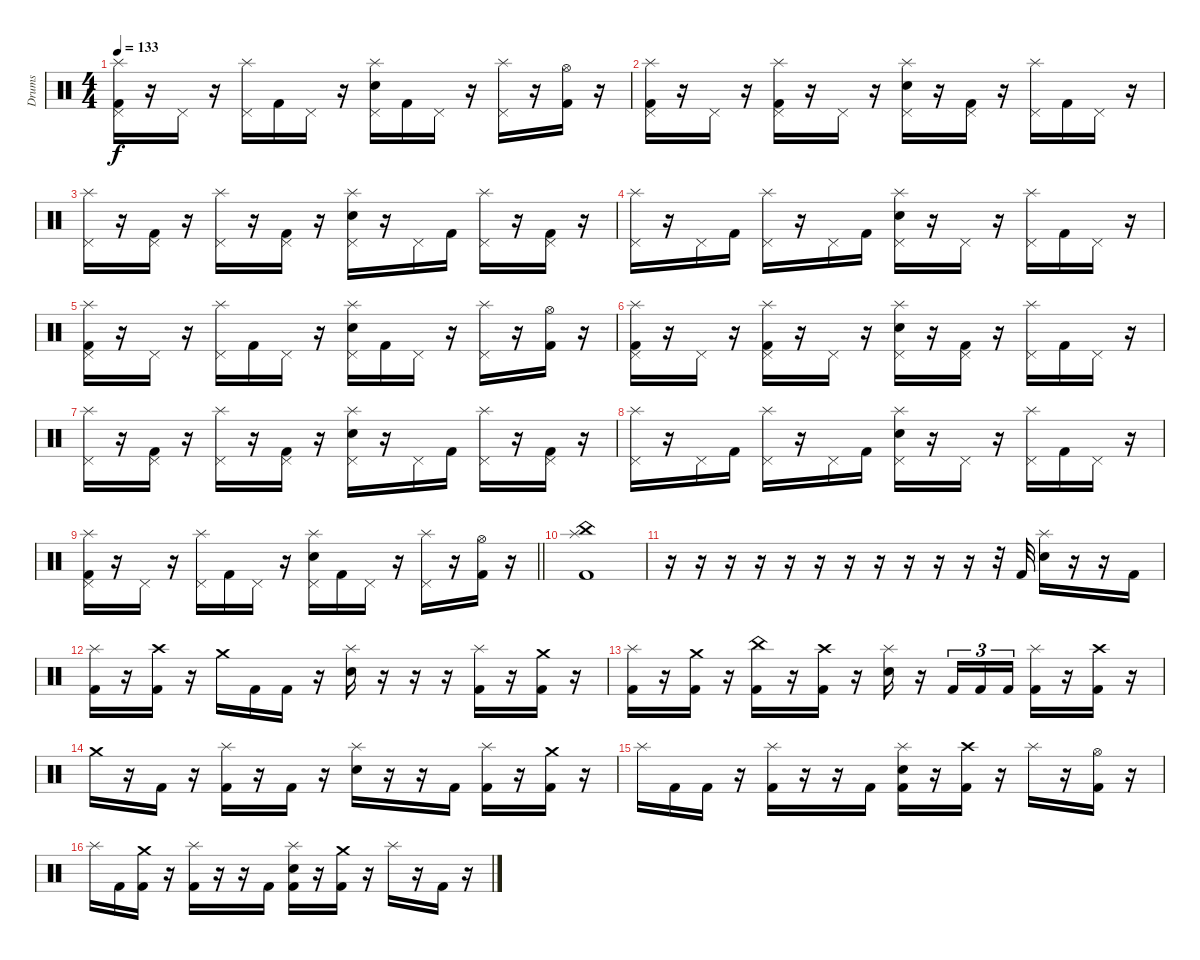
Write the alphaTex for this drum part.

\track ("Drums" "Drums") {instrument percussion}
\staff {score}
\articulation defaults
\ts (4 4)
\tempo 133
\clef neutral
\ks c
("Splash (hit)" "Pedal Hi-Hat (hit)" "Kick (hit) 2").16{dy f} r.16 "Pedal Hi-Hat (hit)".16 r.16 ("Splash (hit)" "Pedal Hi-Hat (hit)").16 "Kick (hit) 2".16 "Pedal Hi-Hat (hit)".16 r.16 ("Splash (hit)" "Pedal Hi-Hat (hit)" "Electric Snare (hit)").16 "Kick (hit) 2".16 "Pedal Hi-Hat (hit)".16 r.16 ("Splash (hit)" "Pedal Hi-Hat (hit)").16 r.16 ("Hi-Hat (open)" "Kick (hit) 2").16 r.16 |
("Splash (hit)" "Pedal Hi-Hat (hit)" "Kick (hit) 2").16 r.16 "Pedal Hi-Hat (hit)".16 r.16 ("Splash (hit)" "Pedal Hi-Hat (hit)" "Kick (hit) 2").16 r.16 "Pedal Hi-Hat (hit)".16 r.16 ("Splash (hit)" "Pedal Hi-Hat (hit)" "Electric Snare (hit)").16 r.16 ("Pedal Hi-Hat (hit)" "Kick (hit) 2").16 r.16 ("Splash (hit)" "Pedal Hi-Hat (hit)").16 "Kick (hit) 2".16 "Pedal Hi-Hat (hit)".16 r.16 |
("Splash (hit)" "Pedal Hi-Hat (hit)").16 r.16 ("Pedal Hi-Hat (hit)" "Kick (hit) 2").16 r.16 ("Splash (hit)" "Pedal Hi-Hat (hit)").16 r.16 ("Pedal Hi-Hat (hit)" "Kick (hit) 2").16 r.16 ("Splash (hit)" "Pedal Hi-Hat (hit)" "Electric Snare (hit)").16 r.16 "Pedal Hi-Hat (hit)".16 "Kick (hit) 2".16 ("Splash (hit)" "Pedal Hi-Hat (hit)").16 r.16 ("Pedal Hi-Hat (hit)" "Kick (hit) 2").16 r.16 |
("Splash (hit)" "Pedal Hi-Hat (hit)").16 r.16 "Pedal Hi-Hat (hit)".16 "Kick (hit) 2".16 ("Splash (hit)" "Pedal Hi-Hat (hit)").16 r.16 "Pedal Hi-Hat (hit)".16 "Kick (hit) 2".16 ("Splash (hit)" "Pedal Hi-Hat (hit)" "Electric Snare (hit)").16 r.16 "Pedal Hi-Hat (hit)".16 r.16 ("Splash (hit)" "Pedal Hi-Hat (hit)").16 "Kick (hit) 2".16 "Pedal Hi-Hat (hit)".16 r.16 |
("Splash (hit)" "Pedal Hi-Hat (hit)" "Kick (hit) 2").16 r.16 "Pedal Hi-Hat (hit)".16 r.16 ("Splash (hit)" "Pedal Hi-Hat (hit)").16 "Kick (hit) 2".16 "Pedal Hi-Hat (hit)".16 r.16 ("Splash (hit)" "Pedal Hi-Hat (hit)" "Electric Snare (hit)").16 "Kick (hit) 2".16 "Pedal Hi-Hat (hit)".16 r.16 ("Splash (hit)" "Pedal Hi-Hat (hit)").16 r.16 ("Hi-Hat (open)" "Kick (hit) 2").16 r.16 |
("Splash (hit)" "Pedal Hi-Hat (hit)" "Kick (hit) 2").16 r.16 "Pedal Hi-Hat (hit)".16 r.16 ("Splash (hit)" "Pedal Hi-Hat (hit)" "Kick (hit) 2").16 r.16 "Pedal Hi-Hat (hit)".16 r.16 ("Splash (hit)" "Pedal Hi-Hat (hit)" "Electric Snare (hit)").16 r.16 ("Pedal Hi-Hat (hit)" "Kick (hit) 2").16 r.16 ("Splash (hit)" "Pedal Hi-Hat (hit)").16 "Kick (hit) 2".16 "Pedal Hi-Hat (hit)".16 r.16 |
("Splash (hit)" "Pedal Hi-Hat (hit)").16 r.16 ("Pedal Hi-Hat (hit)" "Kick (hit) 2").16 r.16 ("Splash (hit)" "Pedal Hi-Hat (hit)").16 r.16 ("Pedal Hi-Hat (hit)" "Kick (hit) 2").16 r.16 ("Splash (hit)" "Pedal Hi-Hat (hit)" "Electric Snare (hit)").16 r.16 "Pedal Hi-Hat (hit)".16 "Kick (hit) 2".16 ("Splash (hit)" "Pedal Hi-Hat (hit)").16 r.16 ("Pedal Hi-Hat (hit)" "Kick (hit) 2").16 r.16 |
("Splash (hit)" "Pedal Hi-Hat (hit)").16 r.16 "Pedal Hi-Hat (hit)".16 "Kick (hit) 2".16 ("Splash (hit)" "Pedal Hi-Hat (hit)").16 r.16 "Pedal Hi-Hat (hit)".16 "Kick (hit) 2".16 ("Splash (hit)" "Pedal Hi-Hat (hit)" "Electric Snare (hit)").16 r.16 "Pedal Hi-Hat (hit)".16 r.16 ("Splash (hit)" "Pedal Hi-Hat (hit)").16 "Kick (hit) 2".16 "Pedal Hi-Hat (hit)".16 r.16 |
\barLineRight lightlight
("Splash (hit)" "Pedal Hi-Hat (hit)" "Kick (hit) 2").16 r.16 "Pedal Hi-Hat (hit)".16 r.16 ("Splash (hit)" "Pedal Hi-Hat (hit)").16 "Kick (hit) 2".16 "Pedal Hi-Hat (hit)".16 r.16 ("Splash (hit)" "Pedal Hi-Hat (hit)" "Electric Snare (hit)").16 "Kick (hit) 2".16 "Pedal Hi-Hat (hit)".16 r.16 ("Splash (hit)" "Pedal Hi-Hat (hit)").16 r.16 ("Hi-Hat (open)" "Kick (hit) 2").16 r.16 |
\section ("" "")
("Splash (hit)" "China (hit)" "Kick (hit) 2").1 |
r.16 r.16 r.16 r.16 r.16 r.16 r.16 r.16 r.16 r.16 r.16 r.32 "Kick (hit) 2".32 ("Splash (hit)" "Electric Snare (hit)").16 r.16 r.16 "Kick (hit) 2".16 |
("Splash (hit)" "Kick (hit) 2").16 r.16 ("Crash high (hit)" "Kick (hit) 2").16 r.16 "Crash medium (hit)".16 "Kick (hit) 2".16 "Kick (hit) 2".16 r.16 ("Splash (hit)" "Electric Snare (hit)").16 r.16 r.16 r.16 ("Splash (hit)" "Kick (hit) 2").16 r.16 ("Crash medium (hit)" "Kick (hit) 2").16 r.16 |
("Splash (hit)" "Kick (hit) 2").16 r.16 ("Crash medium (hit)" "Kick (hit) 2").16 r.16 ("China (hit)" "Kick (hit) 2").16 r.16 ("Crash high (hit)" "Kick (hit) 2").16 r.16 ("Splash (hit)" "Electric Snare (hit)").16 r.16 "Kick (hit) 2".16{tu (3 2)} "Kick (hit) 2".16{tu (3 2)} "Kick (hit) 2".16{tu (3 2)} ("Splash (hit)" "Kick (hit) 2").16 r.16 ("Crash high (hit)" "Kick (hit) 2").16 r.16 |
"Crash medium (hit)".16 r.16 "Kick (hit) 2".16 r.16 ("Splash (hit)" "Kick (hit) 2").16 r.16 "Kick (hit) 2".16 r.16 ("Splash (hit)" "Electric Snare (hit)").16 r.16 r.16 "Kick (hit) 2".16 ("Splash (hit)" "Kick (hit) 2").16 r.16 ("Crash medium (hit)" "Kick (hit) 2").16 r.16 |
"Splash (hit)".16 "Kick (hit) 2".16 "Kick (hit) 2".16 r.16 ("Splash (hit)" "Kick (hit) 2").16 r.16 r.16 "Kick (hit) 2".16 ("Splash (hit)" "Electric Snare (hit)" "Kick (hit) 2").16 r.16 ("Crash high (hit)" "Kick (hit) 2").16 r.16 "Splash (hit)".16 r.16 ("Hi-Hat (open)" "Kick (hit) 2").16 r.16 |
"Splash (hit)".16 "Kick (hit) 2".16 ("Crash medium (hit)" "Kick (hit) 2").16 r.16 ("Splash (hit)" "Kick (hit) 2").16 r.16 r.16 "Kick (hit) 2".16 ("Splash (hit)" "Electric Snare (hit)" "Kick (hit) 2").16 r.16 ("Crash medium (hit)" "Kick (hit) 2").16 r.16 "Splash (hit)".16 r.16 "Kick (hit) 2".16 r.16
